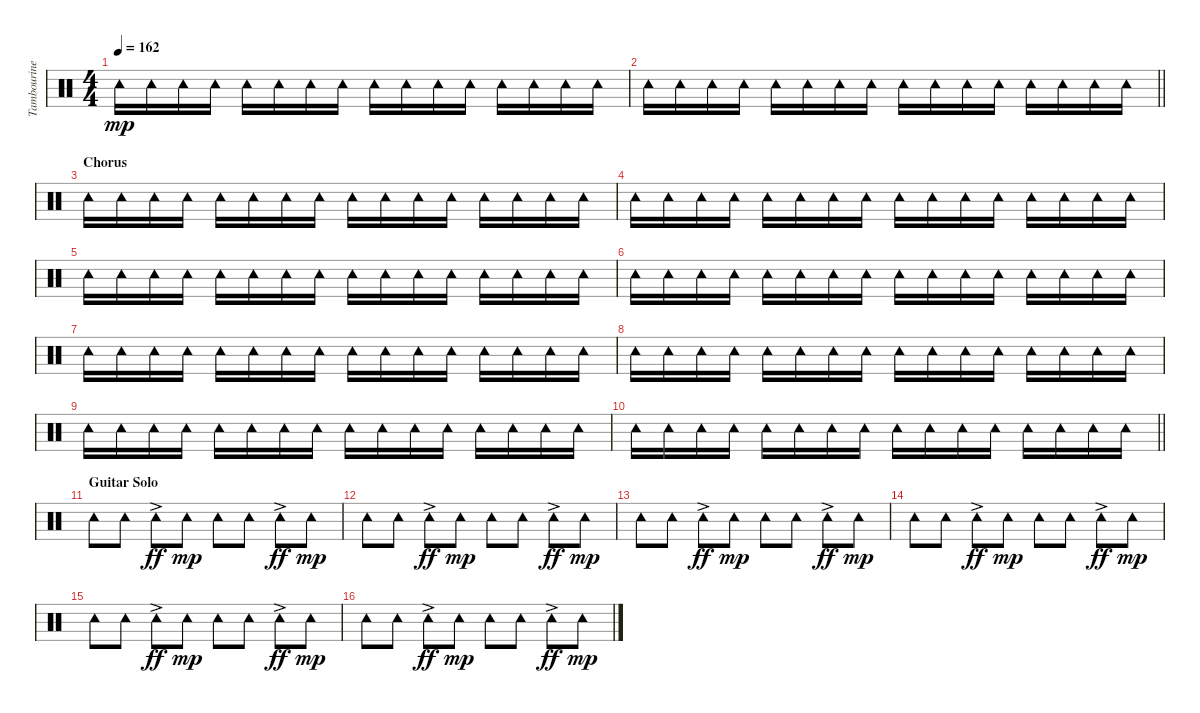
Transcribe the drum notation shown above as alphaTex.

\track ("Tambourine" "Tambourine") {instrument percussion}
\staff {score}
\articulation defaults
\ts (4 4)
\tempo 162
\clef neutral
\ks c "Tambourine (hit)".16{dy mp} "Tambourine (hit)".16 "Tambourine (hit)".16 "Tambourine (hit)".16 "Tambourine (hit)".16 "Tambourine (hit)".16 "Tambourine (hit)".16 "Tambourine (hit)".16 "Tambourine (hit)".16 "Tambourine (hit)".16 "Tambourine (hit)".16 "Tambourine (hit)".16 "Tambourine (hit)".16 "Tambourine (hit)".16 "Tambourine (hit)".16 "Tambourine (hit)".16
|
\barLineRight lightlight "Tambourine (hit)".16 "Tambourine (hit)".16 "Tambourine (hit)".16 "Tambourine (hit)".16 "Tambourine (hit)".16 "Tambourine (hit)".16 "Tambourine (hit)".16 "Tambourine (hit)".16 "Tambourine (hit)".16 "Tambourine (hit)".16 "Tambourine (hit)".16 "Tambourine (hit)".16 "Tambourine (hit)".16 "Tambourine (hit)".16 "Tambourine (hit)".16 "Tambourine (hit)".16
|
\section ("" "Chorus")
"Tambourine (hit)".16 "Tambourine (hit)".16 "Tambourine (hit)".16 "Tambourine (hit)".16 "Tambourine (hit)".16 "Tambourine (hit)".16 "Tambourine (hit)".16 "Tambourine (hit)".16 "Tambourine (hit)".16 "Tambourine (hit)".16 "Tambourine (hit)".16 "Tambourine (hit)".16 "Tambourine (hit)".16 "Tambourine (hit)".16 "Tambourine (hit)".16 "Tambourine (hit)".16 |
"Tambourine (hit)".16 "Tambourine (hit)".16 "Tambourine (hit)".16 "Tambourine (hit)".16 "Tambourine (hit)".16 "Tambourine (hit)".16 "Tambourine (hit)".16 "Tambourine (hit)".16 "Tambourine (hit)".16 "Tambourine (hit)".16 "Tambourine (hit)".16 "Tambourine (hit)".16 "Tambourine (hit)".16 "Tambourine (hit)".16 "Tambourine (hit)".16 "Tambourine (hit)".16 |
"Tambourine (hit)".16 "Tambourine (hit)".16 "Tambourine (hit)".16 "Tambourine (hit)".16 "Tambourine (hit)".16 "Tambourine (hit)".16 "Tambourine (hit)".16 "Tambourine (hit)".16 "Tambourine (hit)".16 "Tambourine (hit)".16 "Tambourine (hit)".16 "Tambourine (hit)".16 "Tambourine (hit)".16 "Tambourine (hit)".16 "Tambourine (hit)".16 "Tambourine (hit)".16 |
"Tambourine (hit)".16 "Tambourine (hit)".16 "Tambourine (hit)".16 "Tambourine (hit)".16 "Tambourine (hit)".16 "Tambourine (hit)".16 "Tambourine (hit)".16 "Tambourine (hit)".16 "Tambourine (hit)".16 "Tambourine (hit)".16 "Tambourine (hit)".16 "Tambourine (hit)".16 "Tambourine (hit)".16 "Tambourine (hit)".16 "Tambourine (hit)".16 "Tambourine (hit)".16 |
"Tambourine (hit)".16 "Tambourine (hit)".16 "Tambourine (hit)".16 "Tambourine (hit)".16 "Tambourine (hit)".16 "Tambourine (hit)".16 "Tambourine (hit)".16 "Tambourine (hit)".16 "Tambourine (hit)".16 "Tambourine (hit)".16 "Tambourine (hit)".16 "Tambourine (hit)".16 "Tambourine (hit)".16 "Tambourine (hit)".16 "Tambourine (hit)".16 "Tambourine (hit)".16 |
"Tambourine (hit)".16 "Tambourine (hit)".16 "Tambourine (hit)".16 "Tambourine (hit)".16 "Tambourine (hit)".16 "Tambourine (hit)".16 "Tambourine (hit)".16 "Tambourine (hit)".16 "Tambourine (hit)".16 "Tambourine (hit)".16 "Tambourine (hit)".16 "Tambourine (hit)".16 "Tambourine (hit)".16 "Tambourine (hit)".16 "Tambourine (hit)".16 "Tambourine (hit)".16 |
"Tambourine (hit)".16 "Tambourine (hit)".16 "Tambourine (hit)".16 "Tambourine (hit)".16 "Tambourine (hit)".16 "Tambourine (hit)".16 "Tambourine (hit)".16 "Tambourine (hit)".16 "Tambourine (hit)".16 "Tambourine (hit)".16 "Tambourine (hit)".16 "Tambourine (hit)".16 "Tambourine (hit)".16 "Tambourine (hit)".16 "Tambourine (hit)".16 "Tambourine (hit)".16 |
\barLineRight lightlight "Tambourine (hit)".16 "Tambourine (hit)".16 "Tambourine (hit)".16 "Tambourine (hit)".16 "Tambourine (hit)".16 "Tambourine (hit)".16 "Tambourine (hit)".16 "Tambourine (hit)".16 "Tambourine (hit)".16 "Tambourine (hit)".16 "Tambourine (hit)".16 "Tambourine (hit)".16 "Tambourine (hit)".16 "Tambourine (hit)".16 "Tambourine (hit)".16 "Tambourine (hit)".16
|
\section ("" "Guitar Solo")
"Tambourine (hit)".8 "Tambourine (hit)".8 "Tambourine (hit)"{ac}.8{dy ff} "Tambourine (hit)".8{dy mp} "Tambourine (hit)".8 "Tambourine (hit)".8 "Tambourine (hit)"{ac}.8{dy ff} "Tambourine (hit)".8{dy mp} |
"Tambourine (hit)".8 "Tambourine (hit)".8 "Tambourine (hit)"{ac}.8{dy ff} "Tambourine (hit)".8{dy mp} "Tambourine (hit)".8 "Tambourine (hit)".8 "Tambourine (hit)"{ac}.8{dy ff} "Tambourine (hit)".8{dy mp} |
"Tambourine (hit)".8 "Tambourine (hit)".8 "Tambourine (hit)"{ac}.8{dy ff} "Tambourine (hit)".8{dy mp} "Tambourine (hit)".8 "Tambourine (hit)".8 "Tambourine (hit)"{ac}.8{dy ff} "Tambourine (hit)".8{dy mp} |
"Tambourine (hit)".8 "Tambourine (hit)".8 "Tambourine (hit)"{ac}.8{dy ff} "Tambourine (hit)".8{dy mp} "Tambourine (hit)".8 "Tambourine (hit)".8 "Tambourine (hit)"{ac}.8{dy ff} "Tambourine (hit)".8{dy mp} |
"Tambourine (hit)".8 "Tambourine (hit)".8 "Tambourine (hit)"{ac}.8{dy ff} "Tambourine (hit)".8{dy mp} "Tambourine (hit)".8 "Tambourine (hit)".8 "Tambourine (hit)"{ac}.8{dy ff} "Tambourine (hit)".8{dy mp} |
"Tambourine (hit)".8 "Tambourine (hit)".8 "Tambourine (hit)"{ac}.8{dy ff} "Tambourine (hit)".8{dy mp} "Tambourine (hit)".8 "Tambourine (hit)".8 "Tambourine (hit)"{ac}.8{dy ff} "Tambourine (hit)".8{dy mp}
